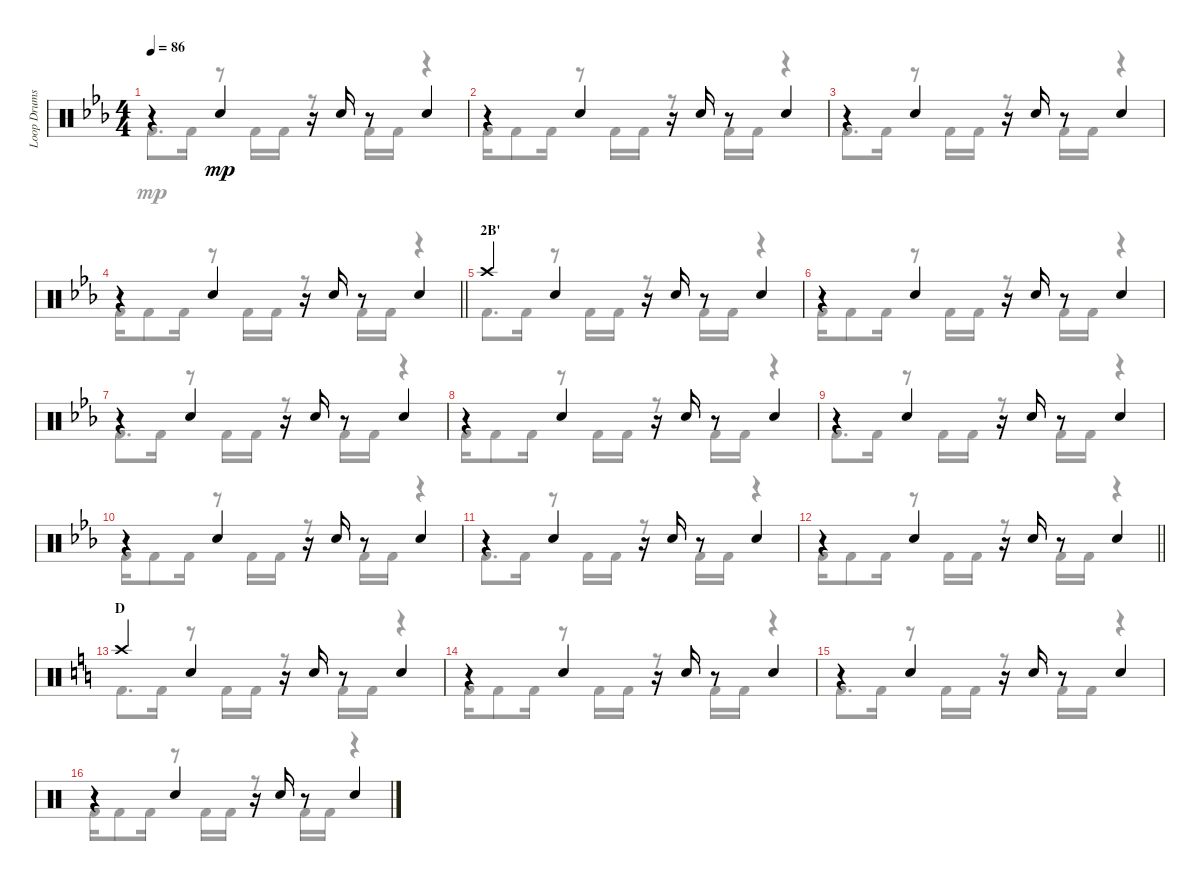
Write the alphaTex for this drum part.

\track ("Loop Drums I" "Loop Drums") {instrument percussion}
\staff {score}
\articulation defaults
\voice
\ts (4 4)
\tempo 86
\clef neutral
\ks eb
r.4{dy mp} "Electric Snare (hit)".4 r.16 "Electric Snare (hit)".16 r.8 "Electric Snare (hit)".4 |
r.4 "Electric Snare (hit)".4 r.16 "Electric Snare (hit)".16 r.8 "Electric Snare (hit)".4 |
r.4 "Electric Snare (hit)".4 r.16 "Electric Snare (hit)".16 r.8 "Electric Snare (hit)".4 |
\barLineRight lightlight
r.4 "Electric Snare (hit)".4 r.16 "Electric Snare (hit)".16 r.8 "Electric Snare (hit)".4 |
\section ("" "2B'")
"Crash high (hit)".4 "Electric Snare (hit)".4 r.16 "Electric Snare (hit)".16 r.8 "Electric Snare (hit)".4 |
r.4 "Electric Snare (hit)".4 r.16 "Electric Snare (hit)".16 r.8 "Electric Snare (hit)".4 |
r.4 "Electric Snare (hit)".4 r.16 "Electric Snare (hit)".16 r.8 "Electric Snare (hit)".4 |
r.4 "Electric Snare (hit)".4 r.16 "Electric Snare (hit)".16 r.8 "Electric Snare (hit)".4 |
r.4 "Electric Snare (hit)".4 r.16 "Electric Snare (hit)".16 r.8 "Electric Snare (hit)".4 |
r.4 "Electric Snare (hit)".4 r.16 "Electric Snare (hit)".16 r.8 "Electric Snare (hit)".4 |
r.4 "Electric Snare (hit)".4 r.16 "Electric Snare (hit)".16 r.8 "Electric Snare (hit)".4 |
\barLineRight lightlight
r.4 "Electric Snare (hit)".4 r.16 "Electric Snare (hit)".16 r.8 "Electric Snare (hit)".4 |
\section ("" "D")
\ks c "Crash high (hit)".4 "Electric Snare (hit)".4
r.16 "Electric Snare (hit)".16 r.8 "Electric Snare (hit)".4 |
r.4 "Electric Snare (hit)".4 r.16 "Electric Snare (hit)".16 r.8 "Electric Snare (hit)".4 |
r.4 "Electric Snare (hit)".4 r.16 "Electric Snare (hit)".16 r.8 "Electric Snare (hit)".4 |
r.4 "Electric Snare (hit)".4 r.16 "Electric Snare (hit)".16 r.8 "Electric Snare (hit)".4
\voice
\clef neutral
\ottava regular
\simile none
\ks eb "Kick (hit) 2".8{d dy mp} "Kick (hit) 2".16
r.8 "Kick (hit) 2".16 "Kick (hit) 2".16 r.8 "Kick (hit) 2".16 "Kick (hit) 2".16 r.4 |
"Kick (hit) 2".16 "Kick (hit) 2".8 "Kick (hit) 2".16 r.8 "Kick (hit) 2".16 "Kick (hit) 2".16 r.8 "Kick (hit) 2".16 "Kick (hit) 2".16 r.4 |
"Kick (hit) 2".8{d} "Kick (hit) 2".16 r.8 "Kick (hit) 2".16 "Kick (hit) 2".16 r.8 "Kick (hit) 2".16 "Kick (hit) 2".16 r.4 |
\barLineRight lightlight "Kick (hit) 2".16 "Kick (hit) 2".8 "Kick (hit) 2".16
r.8 "Kick (hit) 2".16 "Kick (hit) 2".16 r.8 "Kick (hit) 2".16 "Kick (hit) 2".16 r.4 |
"Kick (hit) 2".8{d} "Kick (hit) 2".16 r.8 "Kick (hit) 2".16 "Kick (hit) 2".16 r.8 "Kick (hit) 2".16 "Kick (hit) 2".16 r.4 |
"Kick (hit) 2".16 "Kick (hit) 2".8 "Kick (hit) 2".16 r.8 "Kick (hit) 2".16 "Kick (hit) 2".16 r.8 "Kick (hit) 2".16 "Kick (hit) 2".16 r.4 |
"Kick (hit) 2".8{d} "Kick (hit) 2".16 r.8 "Kick (hit) 2".16 "Kick (hit) 2".16 r.8 "Kick (hit) 2".16 "Kick (hit) 2".16 r.4 |
"Kick (hit) 2".16 "Kick (hit) 2".8 "Kick (hit) 2".16 r.8 "Kick (hit) 2".16 "Kick (hit) 2".16 r.8 "Kick (hit) 2".16 "Kick (hit) 2".16 r.4 |
"Kick (hit) 2".8{d} "Kick (hit) 2".16 r.8 "Kick (hit) 2".16 "Kick (hit) 2".16 r.8 "Kick (hit) 2".16 "Kick (hit) 2".16 r.4 |
"Kick (hit) 2".16 "Kick (hit) 2".8 "Kick (hit) 2".16 r.8 "Kick (hit) 2".16 "Kick (hit) 2".16 r.8 "Kick (hit) 2".16 "Kick (hit) 2".16 r.4 |
"Kick (hit) 2".8{d} "Kick (hit) 2".16 r.8 "Kick (hit) 2".16 "Kick (hit) 2".16 r.8 "Kick (hit) 2".16 "Kick (hit) 2".16 r.4 |
\barLineRight lightlight "Kick (hit) 2".16 "Kick (hit) 2".8 "Kick (hit) 2".16
r.8 "Kick (hit) 2".16 "Kick (hit) 2".16 r.8 "Kick (hit) 2".16 "Kick (hit) 2".16 r.4 |
\ks c "Kick (hit) 2".8{d} "Kick (hit) 2".16
r.8 "Kick (hit) 2".16 "Kick (hit) 2".16 r.8 "Kick (hit) 2".16 "Kick (hit) 2".16 r.4 |
"Kick (hit) 2".16 "Kick (hit) 2".8 "Kick (hit) 2".16 r.8 "Kick (hit) 2".16 "Kick (hit) 2".16 r.8 "Kick (hit) 2".16 "Kick (hit) 2".16 r.4 |
"Kick (hit) 2".8{d} "Kick (hit) 2".16 r.8 "Kick (hit) 2".16 "Kick (hit) 2".16 r.8 "Kick (hit) 2".16 "Kick (hit) 2".16 r.4 |
"Kick (hit) 2".16 "Kick (hit) 2".8 "Kick (hit) 2".16 r.8 "Kick (hit) 2".16 "Kick (hit) 2".16 r.8 "Kick (hit) 2".16 "Kick (hit) 2".16 r.4
